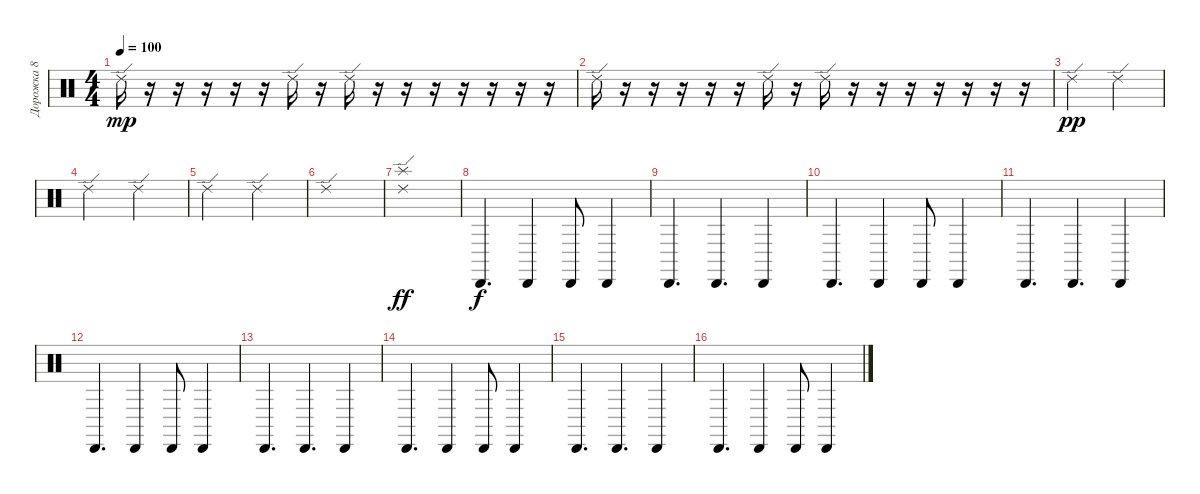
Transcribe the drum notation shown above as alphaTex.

\track ("Дорожка 8" "Дорожка 8") {instrument percussion}
\staff {score}
\articulation defaults
\ts (4 4)
\tempo 100
\clef neutral
\ks c "Ride (edge) 2".16{dy mp}
r.16 r.16 r.16 r.16 r.16 "Ride (edge) 2".16 r.16 "Ride (edge) 2".16 r.16 r.16 r.16 r.16 r.16 r.16 r.16 |
"Ride (edge) 2".16 r.16 r.16 r.16 r.16 r.16 "Ride (edge) 2".16 r.16 "Ride (edge) 2".16 r.16 r.16 r.16 r.16 r.16 r.16 r.16 |
"Ride (edge) 2".2{dy pp} "Ride (edge) 2".2 |
"Ride (edge) 2".2 "Ride (edge) 2".2 |
"Ride (edge) 2".2 "Ride (edge) 2".2 |
"Ride (edge) 2".1 |
("Ride (edge) 2" "Splash (hit)").1{dy ff} |
"Cabasa (hit)".4{d dy f} "Cabasa (hit)".4 "Cabasa (hit)".8 "Cabasa (hit)".4 |
"Cabasa (hit)".4{d} "Cabasa (hit)".4{d} "Cabasa (hit)".4 |
"Cabasa (hit)".4{d} "Cabasa (hit)".4 "Cabasa (hit)".8 "Cabasa (hit)".4 |
"Cabasa (hit)".4{d} "Cabasa (hit)".4{d} "Cabasa (hit)".4 |
"Cabasa (hit)".4{d} "Cabasa (hit)".4 "Cabasa (hit)".8 "Cabasa (hit)".4 |
"Cabasa (hit)".4{d} "Cabasa (hit)".4{d} "Cabasa (hit)".4 |
"Cabasa (hit)".4{d} "Cabasa (hit)".4 "Cabasa (hit)".8 "Cabasa (hit)".4 |
"Cabasa (hit)".4{d} "Cabasa (hit)".4{d} "Cabasa (hit)".4 |
"Cabasa (hit)".4{d} "Cabasa (hit)".4 "Cabasa (hit)".8 "Cabasa (hit)".4
